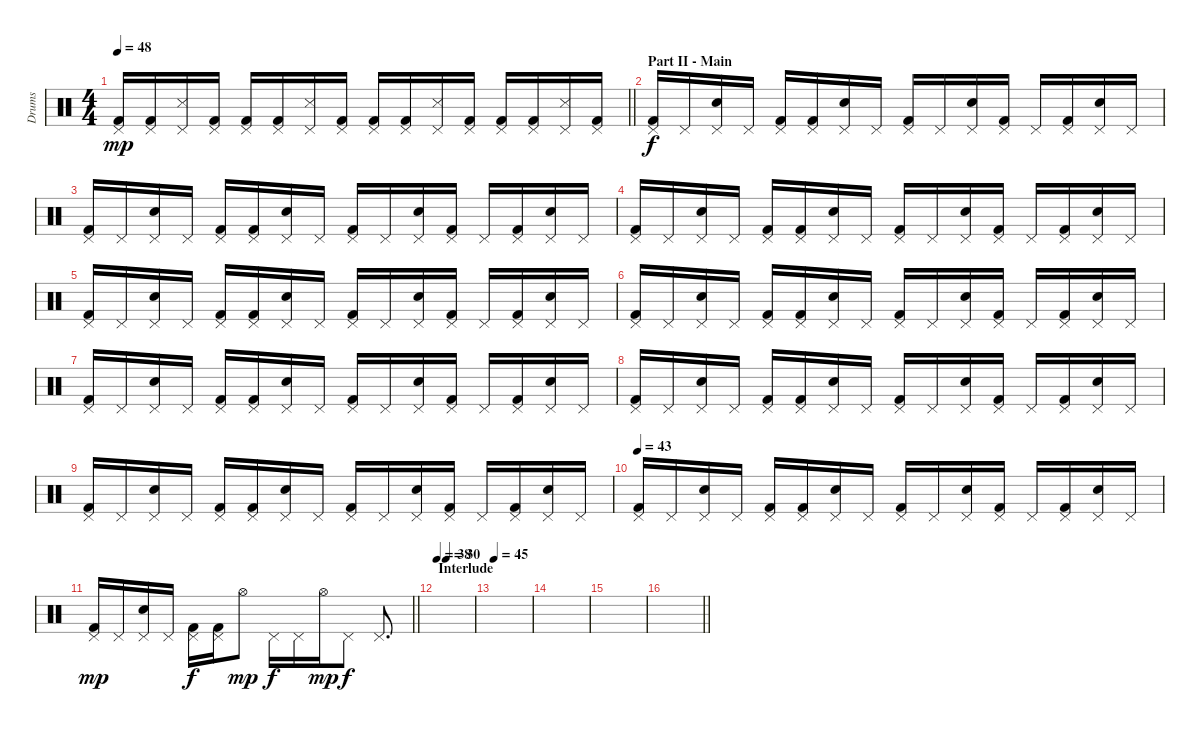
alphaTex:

\track ("Drums" "Drums") {instrument percussion}
\staff {score}
\articulation defaults
\ts (4 4)
\tempo 48
\clef neutral
\barLineRight lightlight
\ks c
("Pedal Hi-Hat (hit)" "Kick (hit) 2").16{dy mp} ("Pedal Hi-Hat (hit)" "Kick (hit) 2").16 ("Pedal Hi-Hat (hit)" "Snare (side stick) 3").16 ("Pedal Hi-Hat (hit)" "Kick (hit) 2").16 ("Pedal Hi-Hat (hit)" "Kick (hit) 2").16 ("Pedal Hi-Hat (hit)" "Kick (hit) 2").16 ("Pedal Hi-Hat (hit)" "Snare (side stick) 3").16 ("Pedal Hi-Hat (hit)" "Kick (hit) 2").16 ("Pedal Hi-Hat (hit)" "Kick (hit) 2").16 ("Pedal Hi-Hat (hit)" "Kick (hit) 2").16 ("Pedal Hi-Hat (hit)" "Snare (side stick) 3").16 ("Pedal Hi-Hat (hit)" "Kick (hit) 2").16 ("Pedal Hi-Hat (hit)" "Kick (hit) 2").16 ("Pedal Hi-Hat (hit)" "Kick (hit) 2").16 ("Pedal Hi-Hat (hit)" "Snare (side stick) 3").16 ("Pedal Hi-Hat (hit)" "Kick (hit) 2").16 |
\section ("" "Part II - Main")
("Pedal Hi-Hat (hit)" "Kick (hit) 2").16{dy f} "Pedal Hi-Hat (hit)".16 ("Pedal Hi-Hat (hit)" "Electric Snare (hit)").16 "Pedal Hi-Hat (hit)".16 ("Pedal Hi-Hat (hit)" "Kick (hit) 2").16 ("Pedal Hi-Hat (hit)" "Kick (hit) 2").16 ("Pedal Hi-Hat (hit)" "Electric Snare (hit)").16 "Pedal Hi-Hat (hit)".16 ("Pedal Hi-Hat (hit)" "Kick (hit) 2").16 "Pedal Hi-Hat (hit)".16 ("Pedal Hi-Hat (hit)" "Electric Snare (hit)").16 ("Pedal Hi-Hat (hit)" "Kick (hit) 2").16 "Pedal Hi-Hat (hit)".16 ("Pedal Hi-Hat (hit)" "Kick (hit) 2").16 ("Pedal Hi-Hat (hit)" "Electric Snare (hit)").16 "Pedal Hi-Hat (hit)".16 |
("Pedal Hi-Hat (hit)" "Kick (hit) 2").16 "Pedal Hi-Hat (hit)".16 ("Pedal Hi-Hat (hit)" "Electric Snare (hit)").16 "Pedal Hi-Hat (hit)".16 ("Pedal Hi-Hat (hit)" "Kick (hit) 2").16 ("Pedal Hi-Hat (hit)" "Kick (hit) 2").16 ("Pedal Hi-Hat (hit)" "Electric Snare (hit)").16 "Pedal Hi-Hat (hit)".16 ("Pedal Hi-Hat (hit)" "Kick (hit) 2").16 "Pedal Hi-Hat (hit)".16 ("Pedal Hi-Hat (hit)" "Electric Snare (hit)").16 ("Pedal Hi-Hat (hit)" "Kick (hit) 2").16 "Pedal Hi-Hat (hit)".16 ("Pedal Hi-Hat (hit)" "Kick (hit) 2").16 ("Pedal Hi-Hat (hit)" "Electric Snare (hit)").16 "Pedal Hi-Hat (hit)".16 |
("Pedal Hi-Hat (hit)" "Kick (hit) 2").16 "Pedal Hi-Hat (hit)".16 ("Pedal Hi-Hat (hit)" "Electric Snare (hit)").16 "Pedal Hi-Hat (hit)".16 ("Pedal Hi-Hat (hit)" "Kick (hit) 2").16 ("Pedal Hi-Hat (hit)" "Kick (hit) 2").16 ("Pedal Hi-Hat (hit)" "Electric Snare (hit)").16 "Pedal Hi-Hat (hit)".16 ("Pedal Hi-Hat (hit)" "Kick (hit) 2").16 "Pedal Hi-Hat (hit)".16 ("Pedal Hi-Hat (hit)" "Electric Snare (hit)").16 ("Pedal Hi-Hat (hit)" "Kick (hit) 2").16 "Pedal Hi-Hat (hit)".16 ("Pedal Hi-Hat (hit)" "Kick (hit) 2").16 ("Pedal Hi-Hat (hit)" "Electric Snare (hit)").16 "Pedal Hi-Hat (hit)".16 |
("Pedal Hi-Hat (hit)" "Kick (hit) 2").16 "Pedal Hi-Hat (hit)".16 ("Pedal Hi-Hat (hit)" "Electric Snare (hit)").16 "Pedal Hi-Hat (hit)".16 ("Pedal Hi-Hat (hit)" "Kick (hit) 2").16 ("Pedal Hi-Hat (hit)" "Kick (hit) 2").16 ("Pedal Hi-Hat (hit)" "Electric Snare (hit)").16 "Pedal Hi-Hat (hit)".16 ("Pedal Hi-Hat (hit)" "Kick (hit) 2").16 "Pedal Hi-Hat (hit)".16 ("Pedal Hi-Hat (hit)" "Electric Snare (hit)").16 ("Pedal Hi-Hat (hit)" "Kick (hit) 2").16 "Pedal Hi-Hat (hit)".16 ("Pedal Hi-Hat (hit)" "Kick (hit) 2").16 ("Pedal Hi-Hat (hit)" "Electric Snare (hit)").16 "Pedal Hi-Hat (hit)".16 |
("Pedal Hi-Hat (hit)" "Kick (hit) 2").16 "Pedal Hi-Hat (hit)".16 ("Pedal Hi-Hat (hit)" "Electric Snare (hit)").16 "Pedal Hi-Hat (hit)".16 ("Pedal Hi-Hat (hit)" "Kick (hit) 2").16 ("Pedal Hi-Hat (hit)" "Kick (hit) 2").16 ("Pedal Hi-Hat (hit)" "Electric Snare (hit)").16 "Pedal Hi-Hat (hit)".16 ("Pedal Hi-Hat (hit)" "Kick (hit) 2").16 "Pedal Hi-Hat (hit)".16 ("Pedal Hi-Hat (hit)" "Electric Snare (hit)").16 ("Pedal Hi-Hat (hit)" "Kick (hit) 2").16 "Pedal Hi-Hat (hit)".16 ("Pedal Hi-Hat (hit)" "Kick (hit) 2").16 ("Pedal Hi-Hat (hit)" "Electric Snare (hit)").16 "Pedal Hi-Hat (hit)".16 |
("Pedal Hi-Hat (hit)" "Kick (hit) 2").16 "Pedal Hi-Hat (hit)".16 ("Pedal Hi-Hat (hit)" "Electric Snare (hit)").16 "Pedal Hi-Hat (hit)".16 ("Pedal Hi-Hat (hit)" "Kick (hit) 2").16 ("Pedal Hi-Hat (hit)" "Kick (hit) 2").16 ("Pedal Hi-Hat (hit)" "Electric Snare (hit)").16 "Pedal Hi-Hat (hit)".16 ("Pedal Hi-Hat (hit)" "Kick (hit) 2").16 "Pedal Hi-Hat (hit)".16 ("Pedal Hi-Hat (hit)" "Electric Snare (hit)").16 ("Pedal Hi-Hat (hit)" "Kick (hit) 2").16 "Pedal Hi-Hat (hit)".16 ("Pedal Hi-Hat (hit)" "Kick (hit) 2").16 ("Pedal Hi-Hat (hit)" "Electric Snare (hit)").16 "Pedal Hi-Hat (hit)".16 |
("Pedal Hi-Hat (hit)" "Kick (hit) 2").16 "Pedal Hi-Hat (hit)".16 ("Pedal Hi-Hat (hit)" "Electric Snare (hit)").16 "Pedal Hi-Hat (hit)".16 ("Pedal Hi-Hat (hit)" "Kick (hit) 2").16 ("Pedal Hi-Hat (hit)" "Kick (hit) 2").16 ("Pedal Hi-Hat (hit)" "Electric Snare (hit)").16 "Pedal Hi-Hat (hit)".16 ("Pedal Hi-Hat (hit)" "Kick (hit) 2").16 "Pedal Hi-Hat (hit)".16 ("Pedal Hi-Hat (hit)" "Electric Snare (hit)").16 ("Pedal Hi-Hat (hit)" "Kick (hit) 2").16 "Pedal Hi-Hat (hit)".16 ("Pedal Hi-Hat (hit)" "Kick (hit) 2").16 ("Pedal Hi-Hat (hit)" "Electric Snare (hit)").16 "Pedal Hi-Hat (hit)".16 |
("Pedal Hi-Hat (hit)" "Kick (hit) 2").16 "Pedal Hi-Hat (hit)".16 ("Pedal Hi-Hat (hit)" "Electric Snare (hit)").16 "Pedal Hi-Hat (hit)".16 ("Pedal Hi-Hat (hit)" "Kick (hit) 2").16 ("Pedal Hi-Hat (hit)" "Kick (hit) 2").16 ("Pedal Hi-Hat (hit)" "Electric Snare (hit)").16 "Pedal Hi-Hat (hit)".16 ("Pedal Hi-Hat (hit)" "Kick (hit) 2").16 "Pedal Hi-Hat (hit)".16 ("Pedal Hi-Hat (hit)" "Electric Snare (hit)").16 ("Pedal Hi-Hat (hit)" "Kick (hit) 2").16 "Pedal Hi-Hat (hit)".16 ("Pedal Hi-Hat (hit)" "Kick (hit) 2").16 ("Pedal Hi-Hat (hit)" "Electric Snare (hit)").16 "Pedal Hi-Hat (hit)".16 |
\tempo 43
("Pedal Hi-Hat (hit)" "Kick (hit) 2").16 "Pedal Hi-Hat (hit)".16 ("Pedal Hi-Hat (hit)" "Electric Snare (hit)").16 "Pedal Hi-Hat (hit)".16 ("Pedal Hi-Hat (hit)" "Kick (hit) 2").16 ("Pedal Hi-Hat (hit)" "Kick (hit) 2").16 ("Pedal Hi-Hat (hit)" "Electric Snare (hit)").16 "Pedal Hi-Hat (hit)".16 ("Pedal Hi-Hat (hit)" "Kick (hit) 2").16 "Pedal Hi-Hat (hit)".16 ("Pedal Hi-Hat (hit)" "Electric Snare (hit)").16 ("Pedal Hi-Hat (hit)" "Kick (hit) 2").16 "Pedal Hi-Hat (hit)".16 ("Pedal Hi-Hat (hit)" "Kick (hit) 2").16 ("Pedal Hi-Hat (hit)" "Electric Snare (hit)").16 "Pedal Hi-Hat (hit)".16 |
\barLineRight lightlight
("Pedal Hi-Hat (hit)" "Kick (hit) 2").16{dy mp} "Pedal Hi-Hat (hit)".16 ("Pedal Hi-Hat (hit)" "Electric Snare (hit)").16 "Pedal Hi-Hat (hit)".16 ("Pedal Hi-Hat (hit)" "Kick (hit) 2").16{dy f} ("Pedal Hi-Hat (hit)" "Kick (hit) 2").16 "Hi-Hat (open)".8{dy mp} "Pedal Hi-Hat (hit)".16{dy f} "Pedal Hi-Hat (hit)".16 "Hi-Hat (open)".16{dy mp} "Pedal Hi-Hat (hit)".8{dy f} "Pedal Hi-Hat (hit)".8{d} |
\section ("" "Interlude")
\tempo 38
\tempo (30 0.25)
|
\tempo 45
|
|
|
\barLineRight lightlight
